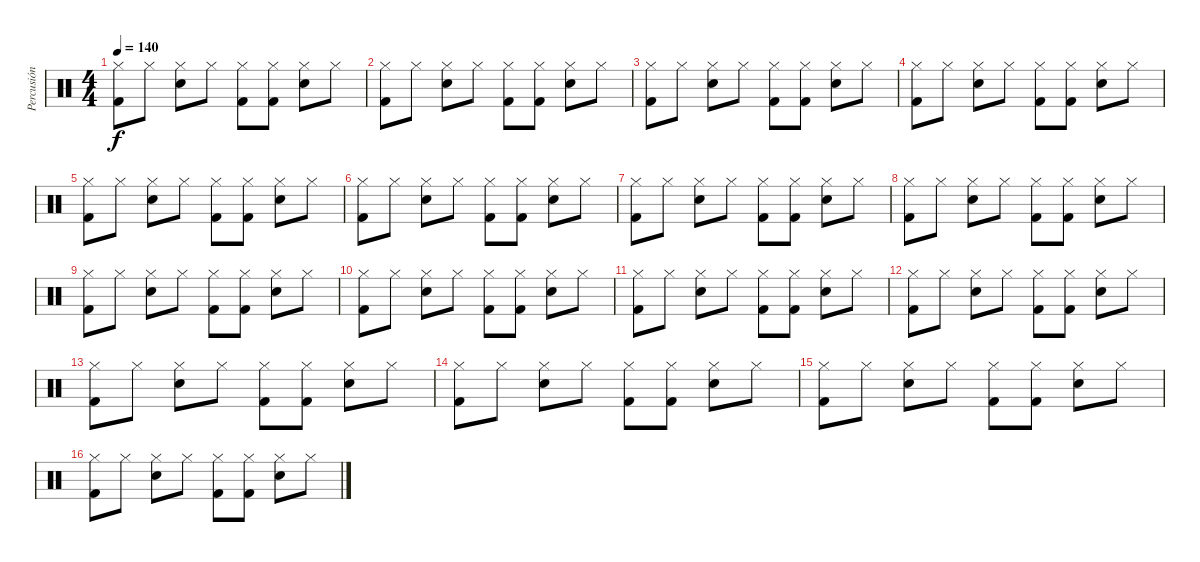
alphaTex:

\track ("Percusión" "Percusión") {instrument percussion}
\staff {score}
\articulation defaults
\ts (4 4)
\tempo 140
\clef neutral
\ks c
("Hi-Hat (closed)" "Kick (hit) 2").8{dy f} "Hi-Hat (closed)".8 ("Hi-Hat (closed)" "Snare (hit) 2").8 "Hi-Hat (closed)".8 ("Hi-Hat (closed)" "Kick (hit) 2").8 ("Hi-Hat (closed)" "Kick (hit) 2").8 ("Hi-Hat (closed)" "Snare (hit) 2").8 "Hi-Hat (closed)".8 |
("Hi-Hat (closed)" "Kick (hit) 2").8 "Hi-Hat (closed)".8 ("Hi-Hat (closed)" "Snare (hit) 2").8 "Hi-Hat (closed)".8 ("Hi-Hat (closed)" "Kick (hit) 2").8 ("Hi-Hat (closed)" "Kick (hit) 2").8 ("Hi-Hat (closed)" "Snare (hit) 2").8 "Hi-Hat (closed)".8 |
("Hi-Hat (closed)" "Kick (hit) 2").8 "Hi-Hat (closed)".8 ("Hi-Hat (closed)" "Snare (hit) 2").8 "Hi-Hat (closed)".8 ("Hi-Hat (closed)" "Kick (hit) 2").8 ("Hi-Hat (closed)" "Kick (hit) 2").8 ("Hi-Hat (closed)" "Snare (hit) 2").8 "Hi-Hat (closed)".8 |
("Hi-Hat (closed)" "Kick (hit) 2").8 "Hi-Hat (closed)".8 ("Hi-Hat (closed)" "Snare (hit) 2").8 "Hi-Hat (closed)".8 ("Hi-Hat (closed)" "Kick (hit) 2").8 ("Hi-Hat (closed)" "Kick (hit) 2").8 ("Hi-Hat (closed)" "Snare (hit) 2").8 "Hi-Hat (closed)".8 |
("Hi-Hat (closed)" "Kick (hit) 2").8 "Hi-Hat (closed)".8 ("Hi-Hat (closed)" "Snare (hit) 2").8 "Hi-Hat (closed)".8 ("Hi-Hat (closed)" "Kick (hit) 2").8 ("Hi-Hat (closed)" "Kick (hit) 2").8 ("Hi-Hat (closed)" "Snare (hit) 2").8 "Hi-Hat (closed)".8 |
("Hi-Hat (closed)" "Kick (hit) 2").8 "Hi-Hat (closed)".8 ("Hi-Hat (closed)" "Snare (hit) 2").8 "Hi-Hat (closed)".8 ("Hi-Hat (closed)" "Kick (hit) 2").8 ("Hi-Hat (closed)" "Kick (hit) 2").8 ("Hi-Hat (closed)" "Snare (hit) 2").8 "Hi-Hat (closed)".8 |
("Hi-Hat (closed)" "Kick (hit) 2").8 "Hi-Hat (closed)".8 ("Hi-Hat (closed)" "Snare (hit) 2").8 "Hi-Hat (closed)".8 ("Hi-Hat (closed)" "Kick (hit) 2").8 ("Hi-Hat (closed)" "Kick (hit) 2").8 ("Hi-Hat (closed)" "Snare (hit) 2").8 "Hi-Hat (closed)".8 |
("Hi-Hat (closed)" "Kick (hit) 2").8 "Hi-Hat (closed)".8 ("Hi-Hat (closed)" "Snare (hit) 2").8 "Hi-Hat (closed)".8 ("Hi-Hat (closed)" "Kick (hit) 2").8 ("Hi-Hat (closed)" "Kick (hit) 2").8 ("Hi-Hat (closed)" "Snare (hit) 2").8 "Hi-Hat (closed)".8 |
("Hi-Hat (closed)" "Kick (hit) 2").8 "Hi-Hat (closed)".8 ("Hi-Hat (closed)" "Snare (hit) 2").8 "Hi-Hat (closed)".8 ("Hi-Hat (closed)" "Kick (hit) 2").8 ("Hi-Hat (closed)" "Kick (hit) 2").8 ("Hi-Hat (closed)" "Snare (hit) 2").8 "Hi-Hat (closed)".8 |
("Hi-Hat (closed)" "Kick (hit) 2").8 "Hi-Hat (closed)".8 ("Hi-Hat (closed)" "Snare (hit) 2").8 "Hi-Hat (closed)".8 ("Hi-Hat (closed)" "Kick (hit) 2").8 ("Hi-Hat (closed)" "Kick (hit) 2").8 ("Hi-Hat (closed)" "Snare (hit) 2").8 "Hi-Hat (closed)".8 |
("Hi-Hat (closed)" "Kick (hit) 2").8 "Hi-Hat (closed)".8 ("Hi-Hat (closed)" "Snare (hit) 2").8 "Hi-Hat (closed)".8 ("Hi-Hat (closed)" "Kick (hit) 2").8 ("Hi-Hat (closed)" "Kick (hit) 2").8 ("Hi-Hat (closed)" "Snare (hit) 2").8 "Hi-Hat (closed)".8 |
("Hi-Hat (closed)" "Kick (hit) 2").8 "Hi-Hat (closed)".8 ("Hi-Hat (closed)" "Snare (hit) 2").8 "Hi-Hat (closed)".8 ("Hi-Hat (closed)" "Kick (hit) 2").8 ("Hi-Hat (closed)" "Kick (hit) 2").8 ("Hi-Hat (closed)" "Snare (hit) 2").8 "Hi-Hat (closed)".8 |
("Hi-Hat (closed)" "Kick (hit) 2").8 "Hi-Hat (closed)".8 ("Hi-Hat (closed)" "Snare (hit) 2").8 "Hi-Hat (closed)".8 ("Hi-Hat (closed)" "Kick (hit) 2").8 ("Hi-Hat (closed)" "Kick (hit) 2").8 ("Hi-Hat (closed)" "Snare (hit) 2").8 "Hi-Hat (closed)".8 |
("Hi-Hat (closed)" "Kick (hit) 2").8 "Hi-Hat (closed)".8 ("Hi-Hat (closed)" "Snare (hit) 2").8 "Hi-Hat (closed)".8 ("Hi-Hat (closed)" "Kick (hit) 2").8 ("Hi-Hat (closed)" "Kick (hit) 2").8 ("Hi-Hat (closed)" "Snare (hit) 2").8 "Hi-Hat (closed)".8 |
("Hi-Hat (closed)" "Kick (hit) 2").8 "Hi-Hat (closed)".8 ("Hi-Hat (closed)" "Snare (hit) 2").8 "Hi-Hat (closed)".8 ("Hi-Hat (closed)" "Kick (hit) 2").8 ("Hi-Hat (closed)" "Kick (hit) 2").8 ("Hi-Hat (closed)" "Snare (hit) 2").8 "Hi-Hat (closed)".8 |
("Hi-Hat (closed)" "Kick (hit) 2").8 "Hi-Hat (closed)".8 ("Hi-Hat (closed)" "Snare (hit) 2").8 "Hi-Hat (closed)".8 ("Hi-Hat (closed)" "Kick (hit) 2").8 ("Hi-Hat (closed)" "Kick (hit) 2").8 ("Hi-Hat (closed)" "Snare (hit) 2").8 "Hi-Hat (closed)".8
